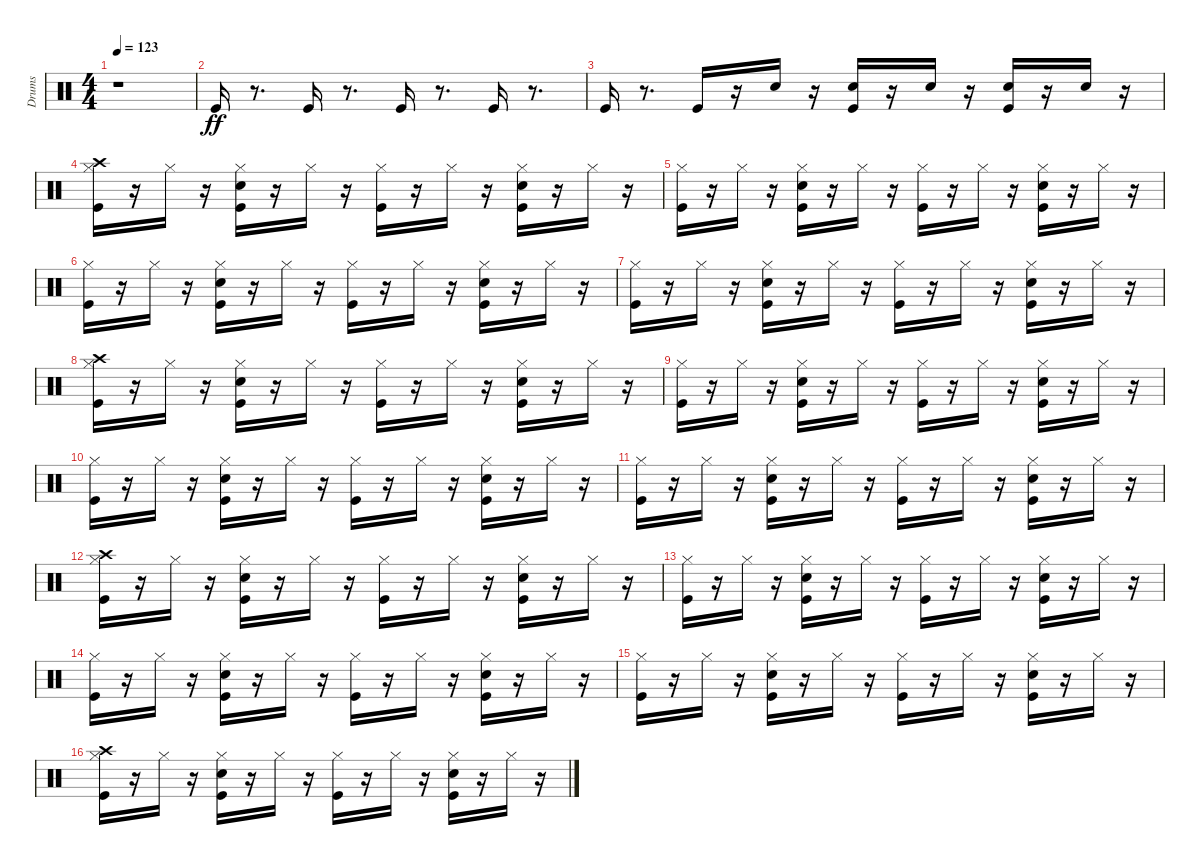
\track ("Drums" "Drums") {instrument percussion}
\staff {score}
\articulation defaults
\ts (4 4)
\tempo 123
\clef neutral
\ks c
r.1{dy ff} |
"Kick (hit)".16 r.8{d} "Kick (hit)".16 r.8{d} "Kick (hit)".16 r.8{d} "Kick (hit)".16 r.8{d} |
"Kick (hit)".16 r.8{d} "Kick (hit)".16 r.16 "Hand Clap (hit)".16 r.16 ("Hand Clap (hit)" "Kick (hit)").16 r.16 "Hand Clap (hit)".16 r.16 ("Kick (hit)" "Hand Clap (hit)").16 r.16 "Hand Clap (hit)".16 r.16 |
("Kick (hit)" "Crash high (hit)" "Hi-Hat (closed)").16 r.16 "Hi-Hat (closed)".16 r.16 ("Kick (hit)" "Hi-Hat (closed)" "Snare (hit) 2").16 r.16 "Hi-Hat (closed)".16 r.16 ("Kick (hit)" "Hi-Hat (closed)").16 r.16 "Hi-Hat (closed)".16 r.16 ("Kick (hit)" "Snare (hit) 2" "Hi-Hat (closed)").16 r.16 "Hi-Hat (closed)".16 r.16 |
("Kick (hit)" "Hi-Hat (closed)").16 r.16 "Hi-Hat (closed)".16 r.16 ("Kick (hit)" "Hi-Hat (closed)" "Snare (hit) 2").16 r.16 "Hi-Hat (closed)".16 r.16 ("Kick (hit)" "Hi-Hat (closed)").16 r.16 "Hi-Hat (closed)".16 r.16 ("Kick (hit)" "Snare (hit) 2" "Hi-Hat (closed)").16 r.16 "Hi-Hat (closed)".16 r.16 |
("Kick (hit)" "Hi-Hat (closed)").16 r.16 "Hi-Hat (closed)".16 r.16 ("Kick (hit)" "Hi-Hat (closed)" "Snare (hit) 2").16 r.16 "Hi-Hat (closed)".16 r.16 ("Kick (hit)" "Hi-Hat (closed)").16 r.16 "Hi-Hat (closed)".16 r.16 ("Kick (hit)" "Snare (hit) 2" "Hi-Hat (closed)").16 r.16 "Hi-Hat (closed)".16 r.16 |
("Kick (hit)" "Hi-Hat (closed)").16 r.16 "Hi-Hat (closed)".16 r.16 ("Kick (hit)" "Hi-Hat (closed)" "Snare (hit) 2").16 r.16 "Hi-Hat (closed)".16 r.16 ("Kick (hit)" "Hi-Hat (closed)").16 r.16 "Hi-Hat (closed)".16 r.16 ("Kick (hit)" "Snare (hit) 2" "Hi-Hat (closed)").16 r.16 "Hi-Hat (closed)".16 r.16 |
("Crash high (hit)" "Kick (hit)" "Hi-Hat (closed)").16 r.16 "Hi-Hat (closed)".16 r.16 ("Kick (hit)" "Hi-Hat (closed)" "Snare (hit) 2").16 r.16 "Hi-Hat (closed)".16 r.16 ("Kick (hit)" "Hi-Hat (closed)").16 r.16 "Hi-Hat (closed)".16 r.16 ("Kick (hit)" "Snare (hit) 2" "Hi-Hat (closed)").16 r.16 "Hi-Hat (closed)".16 r.16 |
("Kick (hit)" "Hi-Hat (closed)").16 r.16 "Hi-Hat (closed)".16 r.16 ("Kick (hit)" "Hi-Hat (closed)" "Snare (hit) 2").16 r.16 "Hi-Hat (closed)".16 r.16 ("Kick (hit)" "Hi-Hat (closed)").16 r.16 "Hi-Hat (closed)".16 r.16 ("Kick (hit)" "Snare (hit) 2" "Hi-Hat (closed)").16 r.16 "Hi-Hat (closed)".16 r.16 |
("Kick (hit)" "Hi-Hat (closed)").16 r.16 "Hi-Hat (closed)".16 r.16 ("Kick (hit)" "Hi-Hat (closed)" "Snare (hit) 2").16 r.16 "Hi-Hat (closed)".16 r.16 ("Kick (hit)" "Hi-Hat (closed)").16 r.16 "Hi-Hat (closed)".16 r.16 ("Kick (hit)" "Snare (hit) 2" "Hi-Hat (closed)").16 r.16 "Hi-Hat (closed)".16 r.16 |
("Kick (hit)" "Hi-Hat (closed)").16 r.16 "Hi-Hat (closed)".16 r.16 ("Kick (hit)" "Hi-Hat (closed)" "Snare (hit) 2").16 r.16 "Hi-Hat (closed)".16 r.16 ("Kick (hit)" "Hi-Hat (closed)").16 r.16 "Hi-Hat (closed)".16 r.16 ("Kick (hit)" "Snare (hit) 2" "Hi-Hat (closed)").16 r.16 "Hi-Hat (closed)".16 r.16 |
("Crash high (hit)" "Kick (hit)" "Hi-Hat (closed)").16 r.16 "Hi-Hat (closed)".16 r.16 ("Kick (hit)" "Hi-Hat (closed)" "Snare (hit) 2").16 r.16 "Hi-Hat (closed)".16 r.16 ("Kick (hit)" "Hi-Hat (closed)").16 r.16 "Hi-Hat (closed)".16 r.16 ("Kick (hit)" "Snare (hit) 2" "Hi-Hat (closed)").16 r.16 "Hi-Hat (closed)".16 r.16 |
("Kick (hit)" "Hi-Hat (closed)").16 r.16 "Hi-Hat (closed)".16 r.16 ("Kick (hit)" "Hi-Hat (closed)" "Snare (hit) 2").16 r.16 "Hi-Hat (closed)".16 r.16 ("Kick (hit)" "Hi-Hat (closed)").16 r.16 "Hi-Hat (closed)".16 r.16 ("Kick (hit)" "Snare (hit) 2" "Hi-Hat (closed)").16 r.16 "Hi-Hat (closed)".16 r.16 |
("Kick (hit)" "Hi-Hat (closed)").16 r.16 "Hi-Hat (closed)".16 r.16 ("Kick (hit)" "Hi-Hat (closed)" "Snare (hit) 2").16 r.16 "Hi-Hat (closed)".16 r.16 ("Kick (hit)" "Hi-Hat (closed)").16 r.16 "Hi-Hat (closed)".16 r.16 ("Kick (hit)" "Snare (hit) 2" "Hi-Hat (closed)").16 r.16 "Hi-Hat (closed)".16 r.16 |
("Kick (hit)" "Hi-Hat (closed)").16 r.16 "Hi-Hat (closed)".16 r.16 ("Kick (hit)" "Hi-Hat (closed)" "Snare (hit) 2").16 r.16 "Hi-Hat (closed)".16 r.16 ("Kick (hit)" "Hi-Hat (closed)").16 r.16 "Hi-Hat (closed)".16 r.16 ("Kick (hit)" "Snare (hit) 2" "Hi-Hat (closed)").16 r.16 "Hi-Hat (closed)".16 r.16 |
("Crash high (hit)" "Kick (hit)" "Hi-Hat (closed)").16 r.16 "Hi-Hat (closed)".16 r.16 ("Kick (hit)" "Hi-Hat (closed)" "Snare (hit) 2").16 r.16 "Hi-Hat (closed)".16 r.16 ("Kick (hit)" "Hi-Hat (closed)").16 r.16 "Hi-Hat (closed)".16 r.16 ("Kick (hit)" "Snare (hit) 2" "Hi-Hat (closed)").16 r.16 "Hi-Hat (closed)".16 r.16
